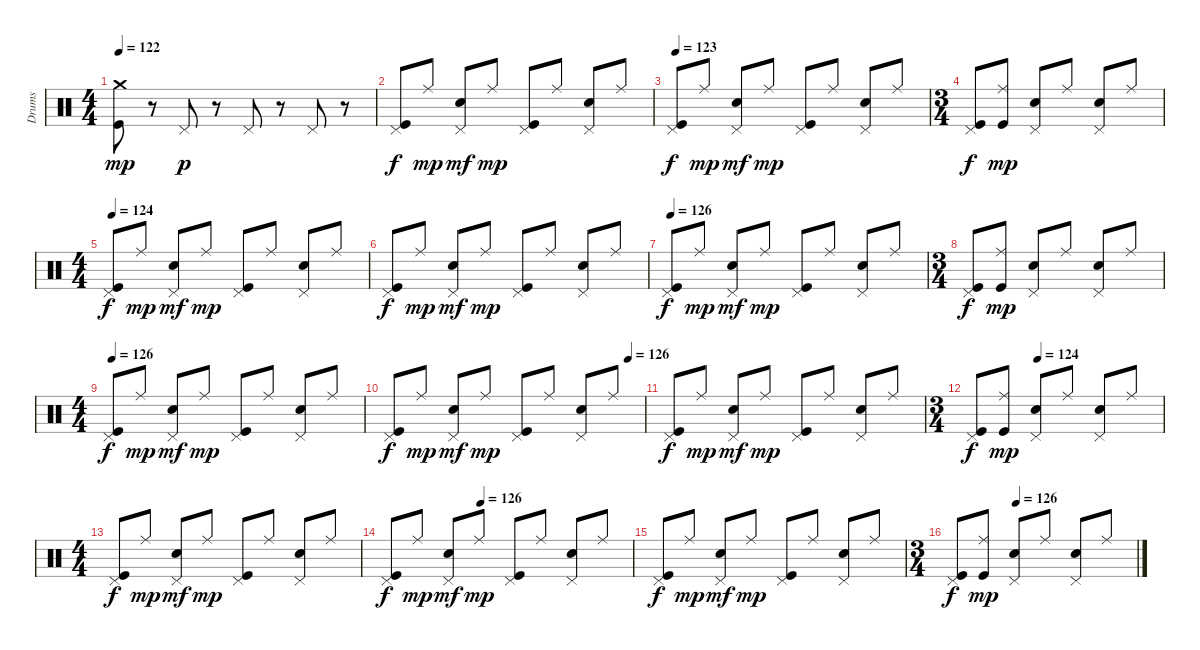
\track ("Drums" "Drums") {instrument percussion}
\staff {score}
\articulation defaults
\ts (4 4)
\tempo 122
\clef neutral
\ks c
("Kick (hit)" "Crash medium (hit)").8{dy mp} r.8 "Pedal Hi-Hat (hit)".8{dy p} r.8 "Pedal Hi-Hat (hit)".8 r.8 "Pedal Hi-Hat (hit)".8 r.8 |
("Kick (hit)" "Pedal Hi-Hat (hit)").8{dy f} "Ride (middle)".8{dy mp} ("Electric Snare (hit)" "Pedal Hi-Hat (hit)").8{dy mf} "Ride (middle)".8{dy mp} ("Kick (hit)" "Pedal Hi-Hat (hit)").8 "Ride (middle)".8 ("Electric Snare (hit)" "Pedal Hi-Hat (hit)").8 "Ride (middle)".8 |
\tempo 123
("Kick (hit)" "Pedal Hi-Hat (hit)").8{dy f} "Ride (middle)".8{dy mp} ("Electric Snare (hit)" "Pedal Hi-Hat (hit)").8{dy mf} "Ride (middle)".8{dy mp} ("Kick (hit)" "Pedal Hi-Hat (hit)").8 "Ride (middle)".8 ("Electric Snare (hit)" "Pedal Hi-Hat (hit)").8 "Ride (middle)".8 |
\ts (3 4)
("Kick (hit)" "Pedal Hi-Hat (hit)").8{dy f} ("Kick (hit)" "Ride (middle)").8{dy mp} ("Electric Snare (hit)" "Pedal Hi-Hat (hit)").8 "Ride (middle)".8 ("Electric Snare (hit)" "Pedal Hi-Hat (hit)").8 "Ride (middle)".8 |
\ts (4 4)
\tempo 124
("Kick (hit)" "Pedal Hi-Hat (hit)").8{dy f} "Ride (middle)".8{dy mp} ("Electric Snare (hit)" "Pedal Hi-Hat (hit)").8{dy mf} "Ride (middle)".8{dy mp} ("Kick (hit)" "Pedal Hi-Hat (hit)").8 "Ride (middle)".8 ("Electric Snare (hit)" "Pedal Hi-Hat (hit)").8 "Ride (middle)".8 |
("Kick (hit)" "Pedal Hi-Hat (hit)").8{dy f} "Ride (middle)".8{dy mp} ("Electric Snare (hit)" "Pedal Hi-Hat (hit)").8{dy mf} "Ride (middle)".8{dy mp} ("Kick (hit)" "Pedal Hi-Hat (hit)").8 "Ride (middle)".8 ("Electric Snare (hit)" "Pedal Hi-Hat (hit)").8 "Ride (middle)".8 |
\tempo 126
("Kick (hit)" "Pedal Hi-Hat (hit)").8{dy f} "Ride (middle)".8{dy mp} ("Electric Snare (hit)" "Pedal Hi-Hat (hit)").8{dy mf} "Ride (middle)".8{dy mp} ("Kick (hit)" "Pedal Hi-Hat (hit)").8 "Ride (middle)".8 ("Electric Snare (hit)" "Pedal Hi-Hat (hit)").8 "Ride (middle)".8 |
\ts (3 4)
("Kick (hit)" "Pedal Hi-Hat (hit)").8{dy f} ("Kick (hit)" "Ride (middle)").8{dy mp} ("Electric Snare (hit)" "Pedal Hi-Hat (hit)").8 "Ride (middle)".8 ("Electric Snare (hit)" "Pedal Hi-Hat (hit)").8 "Ride (middle)".8 |
\ts (4 4)
\tempo 126
("Kick (hit)" "Pedal Hi-Hat (hit)").8{dy f} "Ride (middle)".8{dy mp} ("Electric Snare (hit)" "Pedal Hi-Hat (hit)").8{dy mf} "Ride (middle)".8{dy mp} ("Kick (hit)" "Pedal Hi-Hat (hit)").8 "Ride (middle)".8 ("Electric Snare (hit)" "Pedal Hi-Hat (hit)").8 "Ride (middle)".8 |
\tempo (126 0.9375)
("Kick (hit)" "Pedal Hi-Hat (hit)").8{dy f} "Ride (middle)".8{dy mp} ("Electric Snare (hit)" "Pedal Hi-Hat (hit)").8{dy mf} "Ride (middle)".8{dy mp} ("Kick (hit)" "Pedal Hi-Hat (hit)").8 "Ride (middle)".8 ("Electric Snare (hit)" "Pedal Hi-Hat (hit)").8 "Ride (middle)".8 |
("Kick (hit)" "Pedal Hi-Hat (hit)").8{dy f} "Ride (middle)".8{dy mp} ("Electric Snare (hit)" "Pedal Hi-Hat (hit)").8{dy mf} "Ride (middle)".8{dy mp} ("Kick (hit)" "Pedal Hi-Hat (hit)").8 "Ride (middle)".8 ("Electric Snare (hit)" "Pedal Hi-Hat (hit)").8 "Ride (middle)".8 |
\ts (3 4)
\tempo (124 0.3333333333333333)
("Kick (hit)" "Pedal Hi-Hat (hit)").8{dy f} ("Kick (hit)" "Ride (middle)").8{dy mp} ("Electric Snare (hit)" "Pedal Hi-Hat (hit)").8 "Ride (middle)".8 ("Electric Snare (hit)" "Pedal Hi-Hat (hit)").8 "Ride (middle)".8 |
\ts (4 4)
("Kick (hit)" "Pedal Hi-Hat (hit)").8{dy f} "Ride (middle)".8{dy mp} ("Electric Snare (hit)" "Pedal Hi-Hat (hit)").8{dy mf} "Ride (middle)".8{dy mp} ("Kick (hit)" "Pedal Hi-Hat (hit)").8 "Ride (middle)".8 ("Electric Snare (hit)" "Pedal Hi-Hat (hit)").8 "Ride (middle)".8 |
\tempo (126 0.375)
("Kick (hit)" "Pedal Hi-Hat (hit)").8{dy f} "Ride (middle)".8{dy mp} ("Electric Snare (hit)" "Pedal Hi-Hat (hit)").8{dy mf} "Ride (middle)".8{dy mp} ("Kick (hit)" "Pedal Hi-Hat (hit)").8 "Ride (middle)".8 ("Electric Snare (hit)" "Pedal Hi-Hat (hit)").8 "Ride (middle)".8 |
("Kick (hit)" "Pedal Hi-Hat (hit)").8{dy f} "Ride (middle)".8{dy mp} ("Electric Snare (hit)" "Pedal Hi-Hat (hit)").8{dy mf} "Ride (middle)".8{dy mp} ("Kick (hit)" "Pedal Hi-Hat (hit)").8 "Ride (middle)".8 ("Electric Snare (hit)" "Pedal Hi-Hat (hit)").8 "Ride (middle)".8 |
\ts (3 4)
\tempo (126 0.3333333333333333)
("Kick (hit)" "Pedal Hi-Hat (hit)").8{dy f} ("Kick (hit)" "Ride (middle)").8{dy mp} ("Electric Snare (hit)" "Pedal Hi-Hat (hit)").8 "Ride (middle)".8 ("Electric Snare (hit)" "Pedal Hi-Hat (hit)").8 "Ride (middle)".8
